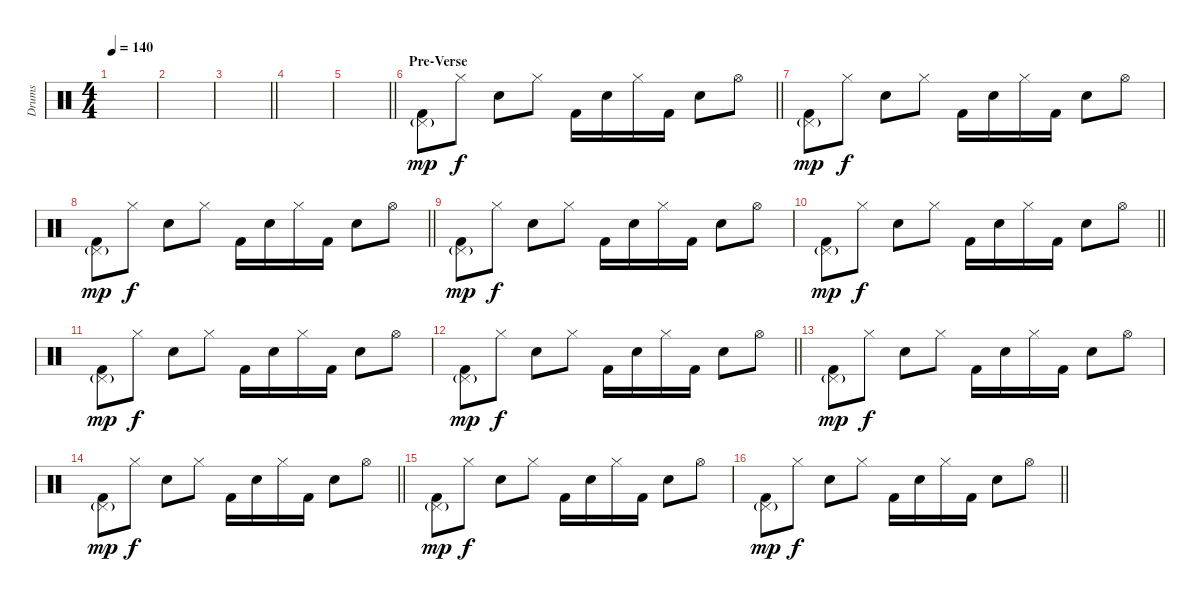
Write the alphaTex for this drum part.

\track ("Drums" "Drums") {instrument percussion}
\staff {score}
\articulation defaults
\ts (4 4)
\tempo 140
\clef neutral
\ks c
|
|
\barLineRight lightlight
|
|
\barLineRight lightlight
|
\section ("" "Pre-Verse")
\barLineRight lightlight
("Pedal Hi-Hat (hit)"{g} "Kick (hit) 2").8{dy mp} "Hi-Hat (closed)".8{dy f} "Snare (hit) 2".8 "Hi-Hat (closed)".8 "Kick (hit) 2".16 "Snare (hit) 2".16 "Hi-Hat (closed)".16 "Kick (hit) 2".16 "Snare (hit) 2".8 "Hi-Hat (open)".8 |
("Pedal Hi-Hat (hit)"{g} "Kick (hit) 2").8{dy mp} "Hi-Hat (closed)".8{dy f} "Snare (hit) 2".8 "Hi-Hat (closed)".8 "Kick (hit) 2".16 "Snare (hit) 2".16 "Hi-Hat (closed)".16 "Kick (hit) 2".16 "Snare (hit) 2".8 "Hi-Hat (open)".8 |
\barLineRight lightlight
("Pedal Hi-Hat (hit)"{g} "Kick (hit) 2").8{dy mp} "Hi-Hat (closed)".8{dy f} "Snare (hit) 2".8 "Hi-Hat (closed)".8 "Kick (hit) 2".16 "Snare (hit) 2".16 "Hi-Hat (closed)".16 "Kick (hit) 2".16 "Snare (hit) 2".8 "Hi-Hat (open)".8 |
("Pedal Hi-Hat (hit)"{g} "Kick (hit) 2").8{dy mp} "Hi-Hat (closed)".8{dy f} "Snare (hit) 2".8 "Hi-Hat (closed)".8 "Kick (hit) 2".16 "Snare (hit) 2".16 "Hi-Hat (closed)".16 "Kick (hit) 2".16 "Snare (hit) 2".8 "Hi-Hat (open)".8 |
\barLineRight lightlight
("Pedal Hi-Hat (hit)"{g} "Kick (hit) 2").8{dy mp} "Hi-Hat (closed)".8{dy f} "Snare (hit) 2".8 "Hi-Hat (closed)".8 "Kick (hit) 2".16 "Snare (hit) 2".16 "Hi-Hat (closed)".16 "Kick (hit) 2".16 "Snare (hit) 2".8 "Hi-Hat (open)".8 |
("Pedal Hi-Hat (hit)"{g} "Kick (hit) 2").8{dy mp} "Hi-Hat (closed)".8{dy f} "Snare (hit) 2".8 "Hi-Hat (closed)".8 "Kick (hit) 2".16 "Snare (hit) 2".16 "Hi-Hat (closed)".16 "Kick (hit) 2".16 "Snare (hit) 2".8 "Hi-Hat (open)".8 |
\barLineRight lightlight
("Pedal Hi-Hat (hit)"{g} "Kick (hit) 2").8{dy mp} "Hi-Hat (closed)".8{dy f} "Snare (hit) 2".8 "Hi-Hat (closed)".8 "Kick (hit) 2".16 "Snare (hit) 2".16 "Hi-Hat (closed)".16 "Kick (hit) 2".16 "Snare (hit) 2".8 "Hi-Hat (open)".8 |
("Pedal Hi-Hat (hit)"{g} "Kick (hit) 2").8{dy mp} "Hi-Hat (closed)".8{dy f} "Snare (hit) 2".8 "Hi-Hat (closed)".8 "Kick (hit) 2".16 "Snare (hit) 2".16 "Hi-Hat (closed)".16 "Kick (hit) 2".16 "Snare (hit) 2".8 "Hi-Hat (open)".8 |
\barLineRight lightlight
("Pedal Hi-Hat (hit)"{g} "Kick (hit) 2").8{dy mp} "Hi-Hat (closed)".8{dy f} "Snare (hit) 2".8 "Hi-Hat (closed)".8 "Kick (hit) 2".16 "Snare (hit) 2".16 "Hi-Hat (closed)".16 "Kick (hit) 2".16 "Snare (hit) 2".8 "Hi-Hat (open)".8 |
("Pedal Hi-Hat (hit)"{g} "Kick (hit) 2").8{dy mp} "Hi-Hat (closed)".8{dy f} "Snare (hit) 2".8 "Hi-Hat (closed)".8 "Kick (hit) 2".16 "Snare (hit) 2".16 "Hi-Hat (closed)".16 "Kick (hit) 2".16 "Snare (hit) 2".8 "Hi-Hat (open)".8 |
\barLineRight lightlight
("Pedal Hi-Hat (hit)"{g} "Kick (hit) 2").8{dy mp} "Hi-Hat (closed)".8{dy f} "Snare (hit) 2".8 "Hi-Hat (closed)".8 "Kick (hit) 2".16 "Snare (hit) 2".16 "Hi-Hat (closed)".16 "Kick (hit) 2".16 "Snare (hit) 2".8 "Hi-Hat (open)".8
